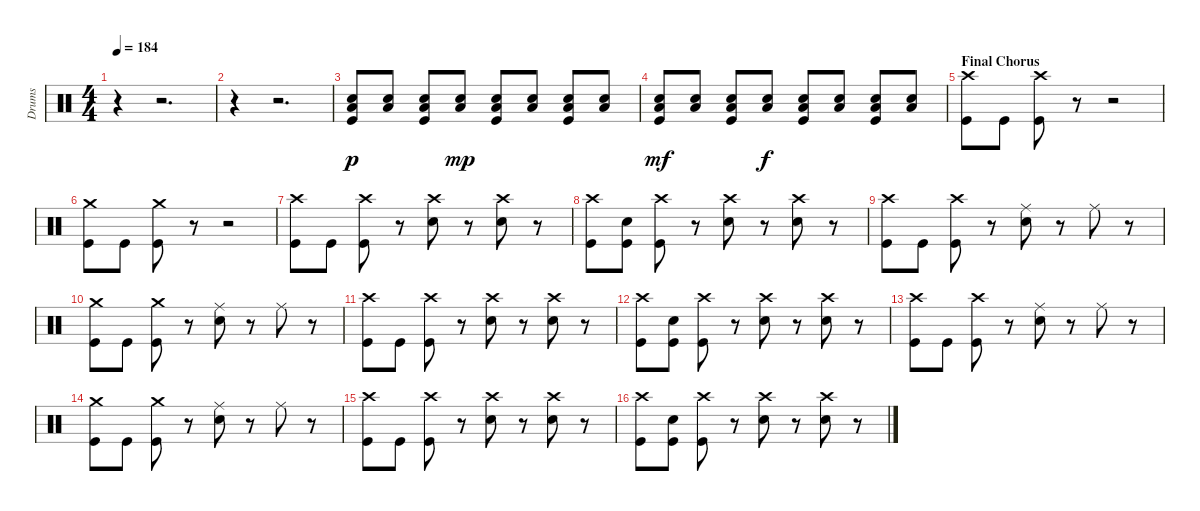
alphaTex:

\track ("Drums" "Drums") {instrument percussion}
\staff {score}
\articulation defaults
\ts (4 4)
\tempo 184
\clef neutral
\ks c
r.4{dy f} r.2{d} |
r.4 r.2{d} |
("Low Tom (hit)" "Snare (hit) 2" "Kick (hit)").8{dy p} ("Low Tom (hit)" "Snare (hit) 2").8 ("Low Tom (hit)" "Snare (hit) 2" "Kick (hit)").8 ("Low Tom (hit)" "Snare (hit) 2").8{dy mp} ("Low Tom (hit)" "Snare (hit) 2" "Kick (hit)").8 ("Low Tom (hit)" "Snare (hit) 2").8 ("Low Tom (hit)" "Snare (hit) 2" "Kick (hit)").8 ("Low Tom (hit)" "Snare (hit) 2").8 |
("Low Tom (hit)" "Snare (hit) 2" "Kick (hit)").8{dy mf} ("Low Tom (hit)" "Snare (hit) 2").8 ("Low Tom (hit)" "Snare (hit) 2" "Kick (hit)").8 ("Low Tom (hit)" "Snare (hit) 2").8{dy f} ("Low Tom (hit)" "Snare (hit) 2" "Kick (hit)").8 ("Low Tom (hit)" "Snare (hit) 2").8 ("Low Tom (hit)" "Snare (hit) 2" "Kick (hit)").8 ("Low Tom (hit)" "Snare (hit) 2").8 |
\section ("" "Final Chorus")
("Crash high (hit)" "Kick (hit)").8 "Kick (hit)".8 ("Crash high (hit)" "Kick (hit)").8 r.8 r.2 |
("Crash medium (hit)" "Kick (hit)").8 "Kick (hit)".8 ("Crash medium (hit)" "Kick (hit)").8 r.8 r.2 |
("Crash high (hit)" "Kick (hit)").8 "Kick (hit)".8 ("Crash high (hit)" "Kick (hit)").8 r.8 ("Crash high (hit)" "Snare (hit) 2").8 r.8 ("Crash high (hit)" "Snare (hit) 2").8 r.8 |
("Crash high (hit)" "Kick (hit)").8 ("Snare (hit) 2" "Kick (hit)").8 ("Crash high (hit)" "Kick (hit)").8 r.8 ("Crash high (hit)" "Snare (hit) 2").8 r.8 ("Crash high (hit)" "Snare (hit) 2").8 r.8 |
("Crash high (hit)" "Kick (hit)").8 "Kick (hit)".8 ("Crash high (hit)" "Kick (hit)").8 r.8 ("Ride (middle)" "Snare (hit) 2").8 r.8 "Ride (middle)".8 r.8 |
("Crash medium (hit)" "Kick (hit)").8 "Kick (hit)".8 ("Crash medium (hit)" "Kick (hit)").8 r.8 ("Ride (middle)" "Snare (hit) 2").8 r.8 "Ride (middle)".8 r.8 |
("Crash high (hit)" "Kick (hit)").8 "Kick (hit)".8 ("Crash high (hit)" "Kick (hit)").8 r.8 ("Crash high (hit)" "Snare (hit) 2").8 r.8 ("Crash high (hit)" "Snare (hit) 2").8 r.8 |
("Crash high (hit)" "Kick (hit)").8 ("Snare (hit) 2" "Kick (hit)").8 ("Crash high (hit)" "Kick (hit)").8 r.8 ("Crash high (hit)" "Snare (hit) 2").8 r.8 ("Crash high (hit)" "Snare (hit) 2").8 r.8 |
("Crash high (hit)" "Kick (hit)").8 "Kick (hit)".8 ("Crash high (hit)" "Kick (hit)").8 r.8 ("Ride (middle)" "Snare (hit) 2").8 r.8 "Ride (middle)".8 r.8 |
("Crash medium (hit)" "Kick (hit)").8 "Kick (hit)".8 ("Crash medium (hit)" "Kick (hit)").8 r.8 ("Ride (middle)" "Snare (hit) 2").8 r.8 "Ride (middle)".8 r.8 |
("Crash high (hit)" "Kick (hit)").8 "Kick (hit)".8 ("Crash high (hit)" "Kick (hit)").8 r.8 ("Crash high (hit)" "Snare (hit) 2").8 r.8 ("Crash high (hit)" "Snare (hit) 2").8 r.8 |
("Crash high (hit)" "Kick (hit)").8 ("Snare (hit) 2" "Kick (hit)").8 ("Crash high (hit)" "Kick (hit)").8 r.8 ("Crash high (hit)" "Snare (hit) 2").8 r.8 ("Crash high (hit)" "Snare (hit) 2").8 r.8
